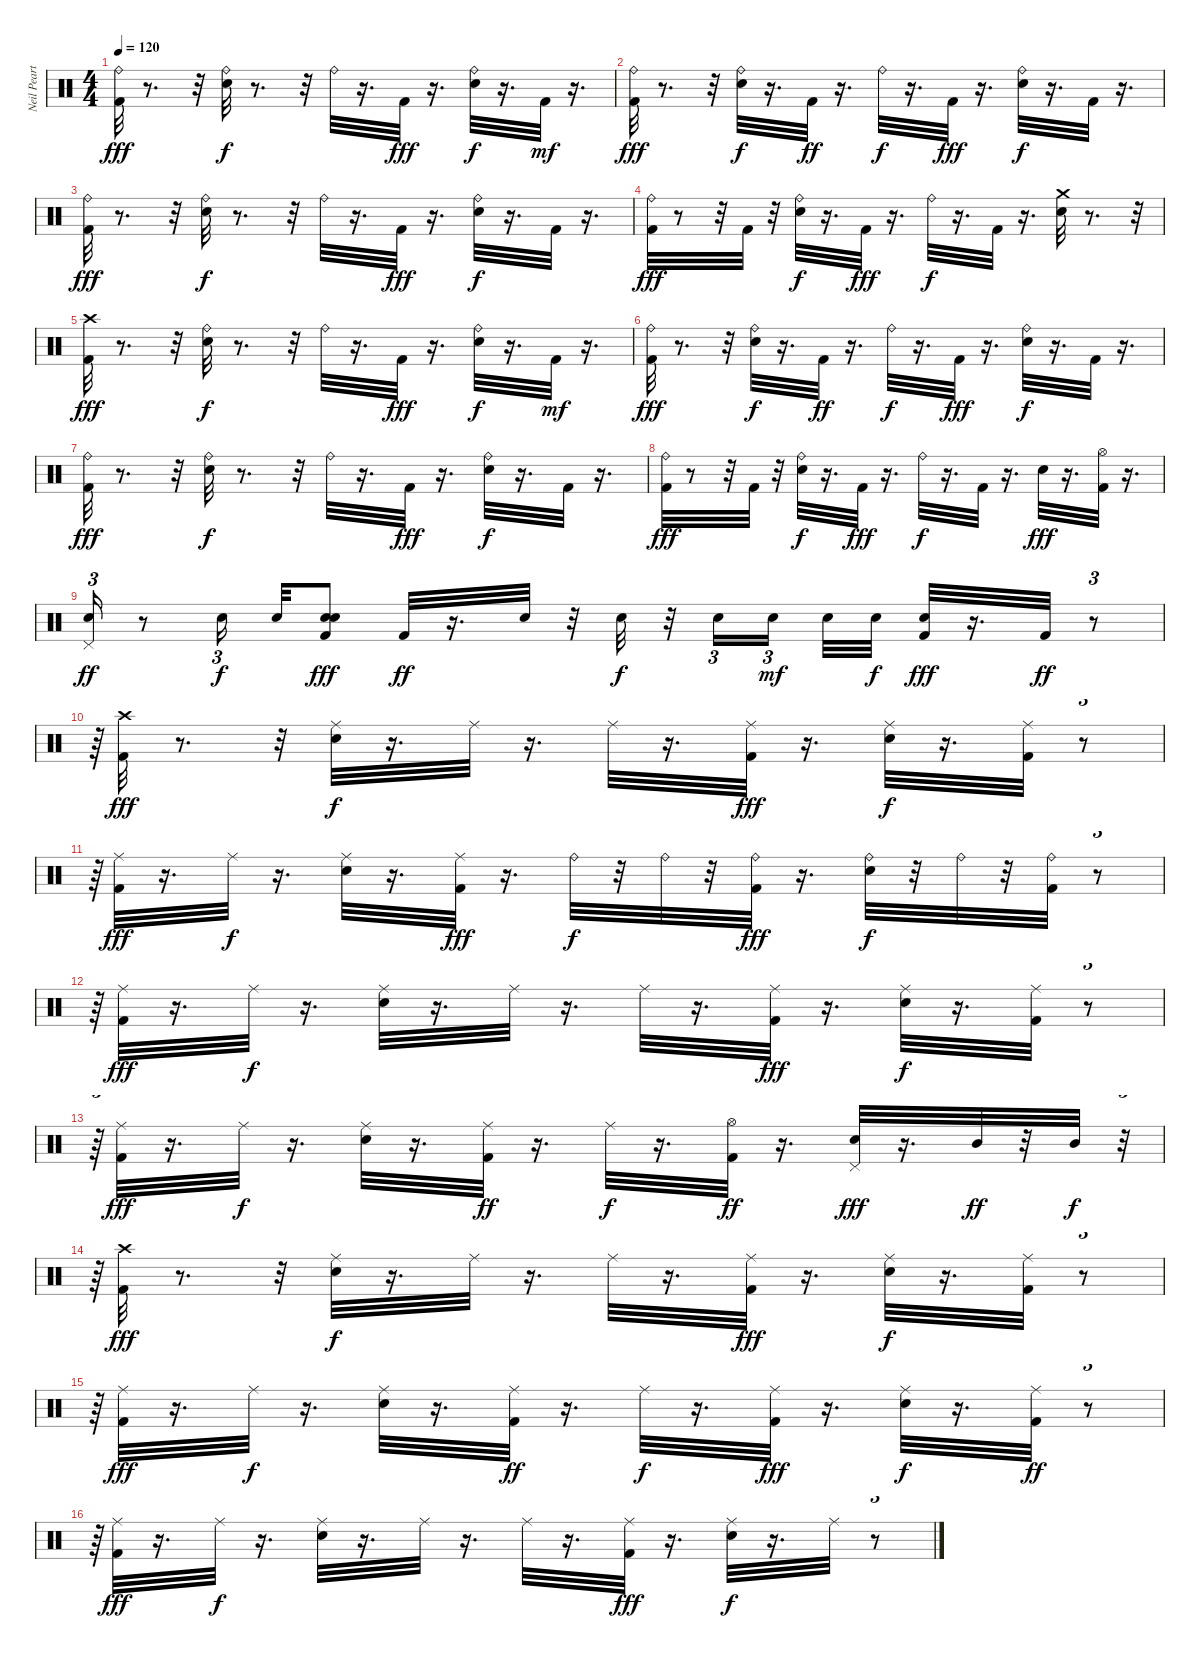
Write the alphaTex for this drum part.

\track ("Neil Peart" "Neil Peart") {instrument percussion}
\staff {score}
\articulation defaults
\ts (4 4)
\tempo 120
\clef neutral
\ks c
("Ride (bell)" "Kick (hit) 2").32{dy fff} r.8{d} r.32 ("Ride (bell)" "Snare (hit) 2").32{dy f} r.8{d} r.32 "Ride (bell)".32 r.16{d} "Kick (hit) 2".32{dy fff} r.16{d} ("Ride (bell)" "Snare (hit) 2").32{dy f} r.16{d} "Kick (hit) 2".32{dy mf} r.16{d} |
("Ride (bell)" "Kick (hit) 2").32{dy fff} r.8{d} r.32 ("Ride (bell)" "Snare (hit) 2").32{dy f} r.16{d} "Kick (hit) 2".32{dy ff} r.16{d} "Ride (bell)".32{dy f} r.16{d} "Kick (hit) 2".32{dy fff} r.16{d} ("Ride (bell)" "Snare (hit) 2").32{dy f} r.16{d} "Kick (hit) 2".32 r.16{d} |
("Ride (bell)" "Kick (hit) 2").32{dy fff} r.8{d} r.32 ("Ride (bell)" "Snare (hit) 2").32{dy f} r.8{d} r.32 "Ride (bell)".32 r.16{d} "Kick (hit) 2".32{dy fff} r.16{d} ("Ride (bell)" "Snare (hit) 2").32{dy f} r.16{d} "Kick (hit) 2".32 r.16{d} |
("Ride (bell)" "Kick (hit) 2").32{dy fff} r.8 r.32 "Kick (hit) 2".32 r.32 ("Ride (bell)" "Snare (hit) 2").32{dy f} r.16{d} "Kick (hit) 2".32{dy fff} r.16{d} "Ride (bell)".32{dy f} r.16{d} "Kick (hit) 2".32 r.16{d} ("Crash medium (hit)" "Snare (hit) 2").32 r.8{d} r.32 |
("Crash high (hit)" "Kick (hit) 2").32{dy fff} r.8{d} r.32 ("Ride (bell)" "Snare (hit) 2").32{dy f} r.8{d} r.32 "Ride (bell)".32 r.16{d} "Kick (hit) 2".32{dy fff} r.16{d} ("Ride (bell)" "Snare (hit) 2").32{dy f} r.16{d} "Kick (hit) 2".32{dy mf} r.16{d} |
("Ride (bell)" "Kick (hit) 2").32{dy fff} r.8{d} r.32 ("Ride (bell)" "Snare (hit) 2").32{dy f} r.16{d} "Kick (hit) 2".32{dy ff} r.16{d} "Ride (bell)".32{dy f} r.16{d} "Kick (hit) 2".32{dy fff} r.16{d} ("Ride (bell)" "Snare (hit) 2").32{dy f} r.16{d} "Kick (hit) 2".32 r.16{d} |
("Ride (bell)" "Kick (hit) 2").32{dy fff} r.8{d} r.32 ("Ride (bell)" "Snare (hit) 2").32{dy f} r.8{d} r.32 "Ride (bell)".32 r.16{d} "Kick (hit) 2".32{dy fff} r.16{d} ("Ride (bell)" "Snare (hit) 2").32{dy f} r.16{d} "Kick (hit) 2".32 r.16{d} |
("Ride (bell)" "Kick (hit) 2").32{dy fff} r.8 r.32 "Kick (hit) 2".32 r.32 ("Ride (bell)" "Snare (hit) 2").32{dy f} r.16{d} "Kick (hit) 2".32{dy fff} r.16{d} "Ride (bell)".32{dy f} r.16{d} "Kick (hit) 2".32 r.16{d} "Snare (hit) 2".32{dy fff} r.16{d} ("Hi-Hat (open)" "Kick (hit) 2").32 r.16{d} |
("Pedal Hi-Hat (hit)" "Snare (hit) 2").16{tu (3 2) dy ff} r.8 "Snare (hit) 2".16{tu (3 2) dy f beam splitsecondary} "Snare (hit) 2".32 ("Snare (hit) 2" "Kick (hit) 2" "Snare (hit) 2").8{dy fff} "Kick (hit) 2".32{dy ff} r.16{d} "Snare (hit) 2".32 r.32 "Snare (hit) 2".32{dy f} r.32 "Snare (hit) 2".16{tu (3 2)} "Snare (hit) 2".16{tu (3 2) dy mf beam splitsecondary} "Snare (hit) 2".32 "Snare (hit) 2".32{dy f} ("Kick (hit) 2" "Snare (hit) 2").32{dy fff} r.16{d} "Kick (hit) 2".32{dy ff} r.8{tu (3 2)} |
r.64{tu (3 2)} ("Crash high (hit)" "Kick (hit) 2").32{dy fff} r.8{d} r.32 ("Ride (middle)" "Snare (hit) 2").32{dy f} r.16{d} "Ride (middle)".32 r.16{d} "Ride (middle)".32 r.16{d} ("Ride (middle)" "Kick (hit) 2").32{dy fff} r.16{d} ("Ride (middle)" "Snare (hit) 2").32{dy f} r.16{d} ("Kick (hit) 2" "Ride (middle)").32 r.8{tu (3 2)} |
r.64{tu (3 2)} ("Ride (middle)" "Kick (hit) 2").32{dy fff} r.16{d} "Ride (middle)".32{dy f} r.16{d} ("Ride (middle)" "Snare (hit) 2").32 r.16{d} ("Ride (middle)" "Kick (hit) 2").32{dy fff} r.16{d} "Ride (bell)".32{dy f} r.32 "Ride (bell)".32 r.32 ("Ride (bell)" "Kick (hit) 2").32{dy fff} r.16{d} ("Ride (bell)" "Snare (hit) 2").32{dy f} r.32 "Ride (bell)".32 r.32 ("Ride (bell)" "Kick (hit) 2").32 r.8{tu (3 2)} |
r.64{tu (3 2)} ("Ride (middle)" "Kick (hit) 2").32{dy fff} r.16{d} "Ride (middle)".32{dy f} r.16{d} ("Ride (middle)" "Snare (hit) 2").32 r.16{d} "Ride (middle)".32 r.16{d} "Ride (middle)".32 r.16{d} ("Ride (middle)" "Kick (hit) 2").32{dy fff} r.16{d} ("Ride (middle)" "Snare (hit) 2").32{dy f} r.16{d} ("Ride (middle)" "Kick (hit) 2").32 r.8{tu (3 2)} |
r.64{tu (3 2)} ("Ride (middle)" "Kick (hit) 2").32{dy fff} r.16{d} "Ride (middle)".32{dy f} r.16{d} ("Ride (middle)" "Snare (hit) 2").32 r.16{d} ("Ride (middle)" "Kick (hit) 2").32{dy ff} r.16{d} "Ride (middle)".32{dy f} r.16{d} ("Kick (hit) 2" "Hi-Hat (open)").32{dy ff} r.16{d} ("Pedal Hi-Hat (hit)" "Snare (hit) 2").32{dy fff} r.16{d} "Mid Tom (hit)".32{dy ff} r.32 "Mid Tom (hit)".32{dy f} r.32{tu (3 2)} |
r.64{tu (3 2)} ("Kick (hit) 2" "Crash high (hit)").32{dy fff} r.8{d} r.32 ("Ride (middle)" "Snare (hit) 2").32{dy f} r.16{d} "Ride (middle)".32 r.16{d} "Ride (middle)".32 r.16{d} ("Ride (middle)" "Kick (hit) 2").32{dy fff} r.16{d} ("Ride (middle)" "Snare (hit) 2").32{dy f} r.16{d} ("Ride (middle)" "Kick (hit) 2").32 r.8{tu (3 2)} |
r.64{tu (3 2)} ("Ride (middle)" "Kick (hit) 2").32{dy fff} r.16{d} "Ride (middle)".32{dy f} r.16{d} ("Ride (middle)" "Snare (hit) 2").32 r.16{d} ("Kick (hit) 2" "Ride (middle)").32{dy ff} r.16{d} "Ride (middle)".32{dy f} r.16{d} ("Kick (hit) 2" "Ride (middle)").32{dy fff} r.16{d} ("Ride (middle)" "Snare (hit) 2").32{dy f} r.16{d} ("Kick (hit) 2" "Ride (middle)").32{dy ff} r.8{tu (3 2)} |
r.64{tu (3 2)} ("Ride (middle)" "Kick (hit) 2").32{dy fff} r.16{d} "Ride (middle)".32{dy f} r.16{d} ("Ride (middle)" "Snare (hit) 2").32 r.16{d} "Ride (middle)".32 r.16{d} "Ride (middle)".32 r.16{d} ("Ride (middle)" "Kick (hit) 2").32{dy fff} r.16{d} ("Ride (middle)" "Snare (hit) 2").32{dy f} r.16{d} "Ride (middle)".32 r.8{tu (3 2)}
